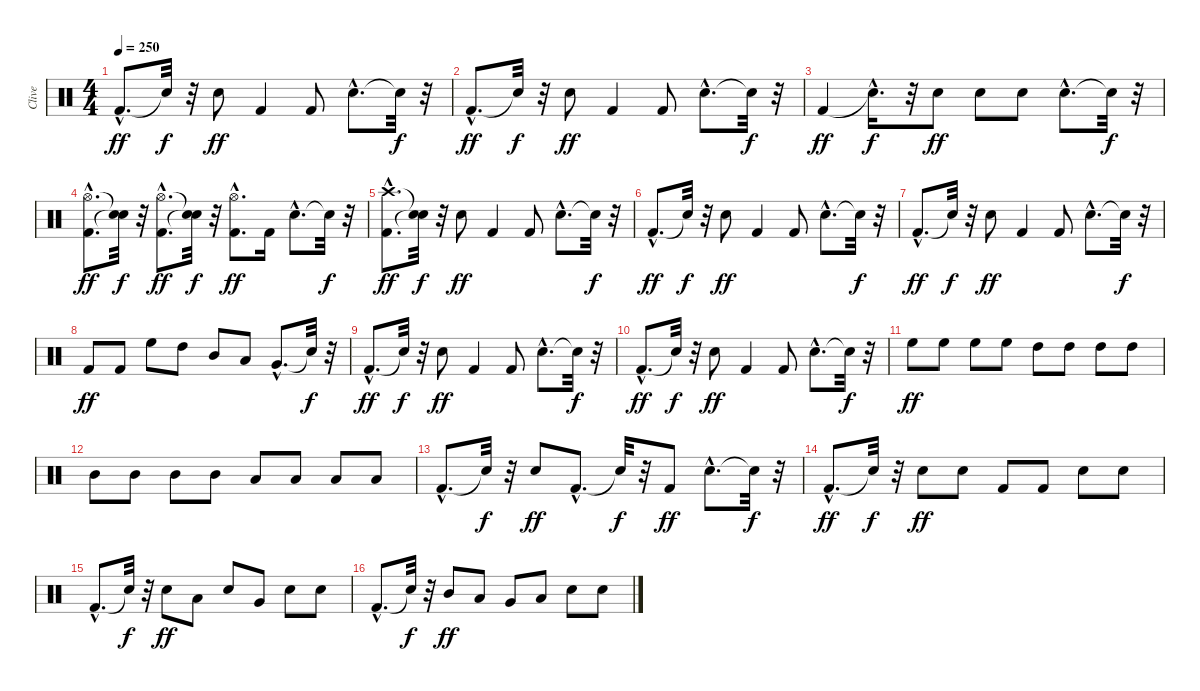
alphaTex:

\track ("Clive" "Clive") {instrument percussion}
\staff {score}
\articulation defaults
\ts (4 4)
\tempo 250
\clef neutral
\ks c "Kick (hit) 2"{hac}.8{d dy ff} "Snare (hit)"{t}.32{dy f}
r.32 "Snare (hit) 2".8{dy ff} "Kick (hit) 2".4 "Kick (hit) 2".8 "Snare (hit) 2"{hac}.8{d} "Snare (hit)"{t}.32{dy f} r.32 |
"Kick (hit) 2"{hac}.8{d dy ff} "Snare (hit)"{t}.32{dy f} r.32 "Snare (hit) 2".8{dy ff} "Kick (hit) 2".4 "Kick (hit) 2".8 "Snare (hit) 2"{hac}.8{d} "Snare (hit)"{t}.32{dy f} r.32 |
"Kick (hit) 2".4{dy ff} "Snare (hit)"{hac t}.16{d dy f} r.32 "Snare (hit) 2".8{dy ff} "Snare (hit) 2".8 "Snare (hit) 2".8 "Snare (hit) 2"{hac}.8{d} "Snare (hit)"{t}.32{dy f} r.32 |
("Kick (hit) 2"{hac} "Hi-Hat (open)"{hac}).8{d dy ff} ("Snare (hit)"{t} "Snare (hit)"{t}).32{dy f} r.32 ("Kick (hit) 2"{hac} "Hi-Hat (open)"{hac}).8{d dy ff} ("Snare (hit)"{t} "Snare (hit)"{t}).32{dy f} r.32 ("Kick (hit) 2"{hac} "Hi-Hat (open)"{hac}).8{d dy ff} "Kick (hit) 2".16 "Snare (hit) 2"{hac}.8{d} "Snare (hit)"{t}.32{dy f} r.32 |
("Kick (hit) 2"{hac} "Crash high (hit)"{hac}).8{d dy ff} ("Snare (hit)"{t} "Snare (hit)"{t}).32{dy f} r.32 "Snare (hit) 2".8{dy ff} "Kick (hit) 2".4 "Kick (hit) 2".8 "Snare (hit) 2"{hac}.8{d} "Snare (hit)"{t}.32{dy f} r.32 |
"Kick (hit) 2"{hac}.8{d dy ff} "Snare (hit)"{t}.32{dy f} r.32 "Snare (hit) 2".8{dy ff} "Kick (hit) 2".4 "Kick (hit) 2".8 "Snare (hit) 2"{hac}.8{d} "Snare (hit)"{t}.32{dy f} r.32 |
"Kick (hit) 2"{hac}.8{d dy ff} "Snare (hit)"{t}.32{dy f} r.32 "Snare (hit) 2".8{dy ff} "Kick (hit) 2".4 "Kick (hit) 2".8 "Snare (hit) 2"{hac}.8{d} "Snare (hit)"{t}.32{dy f} r.32 |
"Kick (hit) 2".8{dy ff} "Kick (hit) 2".8 "High Floor Tom (hit)".8 "High Tom (hit)".8 "Mid Tom (hit)".8 "Low Tom (hit)".8 "Very Low Tom (hit)"{hac}.8{d} "Snare (hit)"{t}.32{dy f} r.32 |
"Kick (hit) 2"{hac}.8{d dy ff} "Snare (hit)"{t}.32{dy f} r.32 "Snare (hit) 2".8{dy ff} "Kick (hit) 2".4 "Kick (hit) 2".8 "Snare (hit) 2"{hac}.8{d} "Snare (hit)"{t}.32{dy f} r.32 |
"Kick (hit) 2"{hac}.8{d dy ff} "Snare (hit)"{t}.32{dy f} r.32 "Snare (hit) 2".8{dy ff} "Kick (hit) 2".4 "Kick (hit) 2".8 "Snare (hit) 2"{hac}.8{d} "Snare (hit)"{t}.32{dy f} r.32 |
"High Floor Tom (hit)".8{dy ff} "High Floor Tom (hit)".8 "High Floor Tom (hit)".8 "High Floor Tom (hit)".8 "High Tom (hit)".8 "High Tom (hit)".8 "High Tom (hit)".8 "High Tom (hit)".8 |
"Mid Tom (hit)".8 "Mid Tom (hit)".8 "Mid Tom (hit)".8 "Mid Tom (hit)".8 "Low Tom (hit)".8 "Low Tom (hit)".8 "Low Tom (hit)".8 "Low Tom (hit)".8 |
"Kick (hit) 2"{hac}.8{d} "Snare (hit)"{t}.32{dy f} r.32 "Snare (hit) 2".8{dy ff} "Kick (hit) 2"{hac}.8{d} "Snare (hit)"{t}.32{dy f} r.32 "Kick (hit) 2".8{dy ff} "Snare (hit) 2"{hac}.8{d} "Snare (hit)"{t}.32{dy f} r.32 |
"Kick (hit) 2"{hac}.8{d dy ff} "Snare (hit)"{t}.32{dy f} r.32 "Snare (hit) 2".8{dy ff} "Snare (hit) 2".8 "Kick (hit) 2".8 "Kick (hit) 2".8 "Snare (hit) 2".8 "Snare (hit) 2".8 |
"Kick (hit) 2"{hac}.8{d} "Snare (hit)"{t}.32{dy f} r.32 "Snare (hit) 2".8{dy ff} "Low Tom (hit)".8 "Snare (hit) 2".8 "Very Low Tom (hit)".8 "Snare (hit) 2".8 "Snare (hit) 2".8 |
"Kick (hit) 2"{hac}.8{d} "Snare (hit)"{t}.32{dy f} r.32 "Mid Tom (hit)".8{dy ff} "Low Tom (hit)".8 "Very Low Tom (hit)".8 "Low Floor Tom (hit)".8 "Snare (hit) 2".8 "Snare (hit) 2".8
